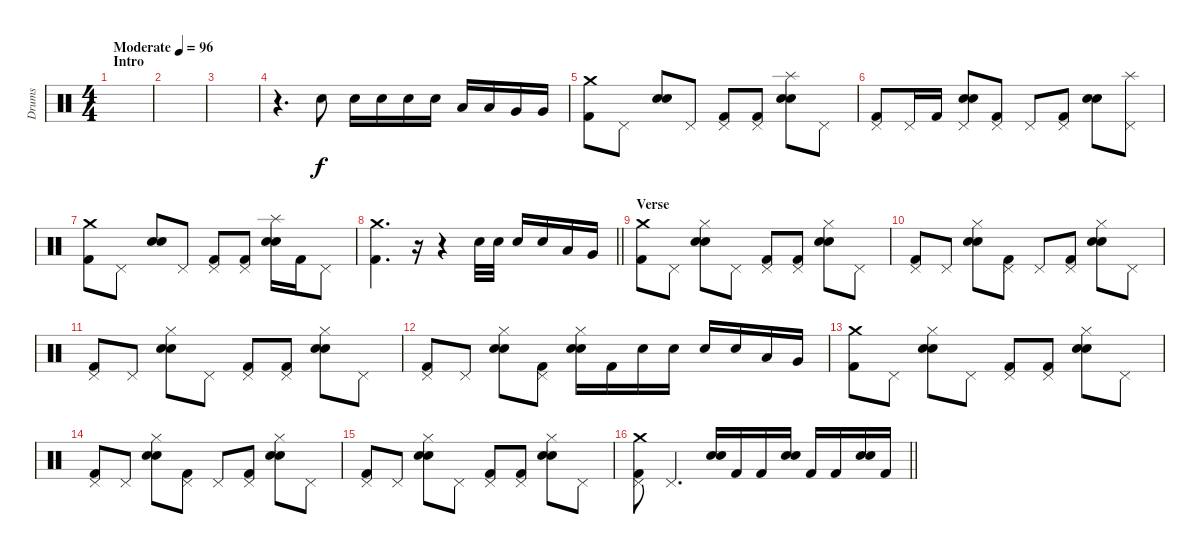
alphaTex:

\track ("Drums" "Drums") {instrument percussion}
\staff {score}
\articulation defaults
\ts (4 4)
\section ("" "Intro")
\tempo (96 "Moderate")
\clef neutral
\ks c
|
|
|
r.4{d} "Electric Snare (hit)".8 "Electric Snare (hit)".16 "Electric Snare (hit)".16 "Electric Snare (hit)".16 "Electric Snare (hit)".16 "Low Tom (hit)".16 "Low Tom (hit)".16 "Very Low Tom (hit)".16 "Very Low Tom (hit)".16 |
("Crash medium (hit)" "Kick (hit) 2").8 "Pedal Hi-Hat (hit)".8 ("Electric Snare (hit)" "Snare (hit) 2").8 "Pedal Hi-Hat (hit)".8 ("Pedal Hi-Hat (hit)" "Kick (hit) 2").8 ("Pedal Hi-Hat (hit)" "Kick (hit) 2").8 ("Splash (hit)" "Electric Snare (hit)" "Snare (hit) 2").8 "Pedal Hi-Hat (hit)".8 |
("Pedal Hi-Hat (hit)" "Kick (hit) 2").8 "Pedal Hi-Hat (hit)".16 "Kick (hit) 2".16 ("Pedal Hi-Hat (hit)" "Electric Snare (hit)" "Snare (hit) 2").8 ("Pedal Hi-Hat (hit)" "Kick (hit) 2").8 "Pedal Hi-Hat (hit)".8 ("Pedal Hi-Hat (hit)" "Kick (hit) 2").8 ("Electric Snare (hit)" "Snare (hit) 2").8 ("Splash (hit)" "Pedal Hi-Hat (hit)").8 |
("Crash medium (hit)" "Kick (hit) 2").8 "Pedal Hi-Hat (hit)".8 ("Electric Snare (hit)" "Snare (hit) 2").8 "Pedal Hi-Hat (hit)".8 ("Pedal Hi-Hat (hit)" "Kick (hit) 2").8 ("Pedal Hi-Hat (hit)" "Kick (hit) 2").8 ("Splash (hit)" "Electric Snare (hit)" "Snare (hit) 2").16 "Kick (hit) 2".16 "Pedal Hi-Hat (hit)".8 |
\barLineRight lightlight
("Crash medium (hit)" "Kick (hit) 2").4{d} r.16 r.4 "Electric Snare (hit)".32 "Electric Snare (hit)".32 "Electric Snare (hit)".16 "Electric Snare (hit)".16 "Low Tom (hit)".16 "Very Low Tom (hit)".16 |
\section ("" "Verse")
("Crash medium (hit)" "Kick (hit) 2").8 "Pedal Hi-Hat (hit)".8 ("Hi-Hat (closed)" "Electric Snare (hit)" "Snare (hit) 2").8 "Pedal Hi-Hat (hit)".8 ("Pedal Hi-Hat (hit)" "Kick (hit) 2").8 ("Pedal Hi-Hat (hit)" "Kick (hit) 2").8 ("Hi-Hat (closed)" "Electric Snare (hit)" "Snare (hit) 2").8 "Pedal Hi-Hat (hit)".8 |
("Pedal Hi-Hat (hit)" "Kick (hit) 2").8 "Pedal Hi-Hat (hit)".8 ("Hi-Hat (closed)" "Electric Snare (hit)" "Snare (hit) 2").8 ("Pedal Hi-Hat (hit)" "Kick (hit) 2").8 "Pedal Hi-Hat (hit)".8 ("Pedal Hi-Hat (hit)" "Kick (hit) 2").8 ("Hi-Hat (closed)" "Electric Snare (hit)" "Snare (hit) 2").8 "Pedal Hi-Hat (hit)".8 |
("Pedal Hi-Hat (hit)" "Kick (hit) 2").8 "Pedal Hi-Hat (hit)".8 ("Hi-Hat (closed)" "Electric Snare (hit)" "Snare (hit) 2").8 "Pedal Hi-Hat (hit)".8 ("Pedal Hi-Hat (hit)" "Kick (hit) 2").8 ("Pedal Hi-Hat (hit)" "Kick (hit) 2").8 ("Hi-Hat (closed)" "Electric Snare (hit)" "Snare (hit) 2").8 "Pedal Hi-Hat (hit)".8 |
("Pedal Hi-Hat (hit)" "Kick (hit) 2").8 "Pedal Hi-Hat (hit)".8 ("Hi-Hat (closed)" "Electric Snare (hit)" "Snare (hit) 2").8 ("Pedal Hi-Hat (hit)" "Kick (hit) 2").8 ("Hi-Hat (closed)" "Electric Snare (hit)" "Snare (hit) 2").16 "Kick (hit) 2".16 "Electric Snare (hit)".16 "Electric Snare (hit)".16 "Electric Snare (hit)".16 "Electric Snare (hit)".16 "Low Tom (hit)".16 "Very Low Tom (hit)".16 |
("Crash medium (hit)" "Kick (hit) 2").8 "Pedal Hi-Hat (hit)".8 ("Hi-Hat (closed)" "Electric Snare (hit)" "Snare (hit) 2").8 "Pedal Hi-Hat (hit)".8 ("Pedal Hi-Hat (hit)" "Kick (hit) 2").8 ("Pedal Hi-Hat (hit)" "Kick (hit) 2").8 ("Hi-Hat (closed)" "Electric Snare (hit)" "Snare (hit) 2").8 "Pedal Hi-Hat (hit)".8 |
("Pedal Hi-Hat (hit)" "Kick (hit) 2").8 "Pedal Hi-Hat (hit)".8 ("Hi-Hat (closed)" "Electric Snare (hit)" "Snare (hit) 2").8 ("Pedal Hi-Hat (hit)" "Kick (hit) 2").8 "Pedal Hi-Hat (hit)".8 ("Pedal Hi-Hat (hit)" "Kick (hit) 2").8 ("Hi-Hat (closed)" "Electric Snare (hit)" "Snare (hit) 2").8 "Pedal Hi-Hat (hit)".8 |
("Pedal Hi-Hat (hit)" "Kick (hit) 2").8 "Pedal Hi-Hat (hit)".8 ("Hi-Hat (closed)" "Electric Snare (hit)" "Snare (hit) 2").8 "Pedal Hi-Hat (hit)".8 ("Pedal Hi-Hat (hit)" "Kick (hit) 2").8 ("Pedal Hi-Hat (hit)" "Kick (hit) 2").8 ("Hi-Hat (closed)" "Electric Snare (hit)" "Snare (hit) 2").8 "Pedal Hi-Hat (hit)".8 |
\barLineRight lightlight
("Crash medium (hit)" "Pedal Hi-Hat (hit)" "Kick (hit) 2").8 "Pedal Hi-Hat (hit)".4{d} ("Electric Snare (hit)" "Snare (hit) 2").16 "Kick (hit) 2".16 "Kick (hit) 2".16 ("Electric Snare (hit)" "Snare (hit) 2").16 "Kick (hit) 2".16 "Kick (hit) 2".16 ("Electric Snare (hit)" "Snare (hit) 2").16 "Kick (hit) 2".16
